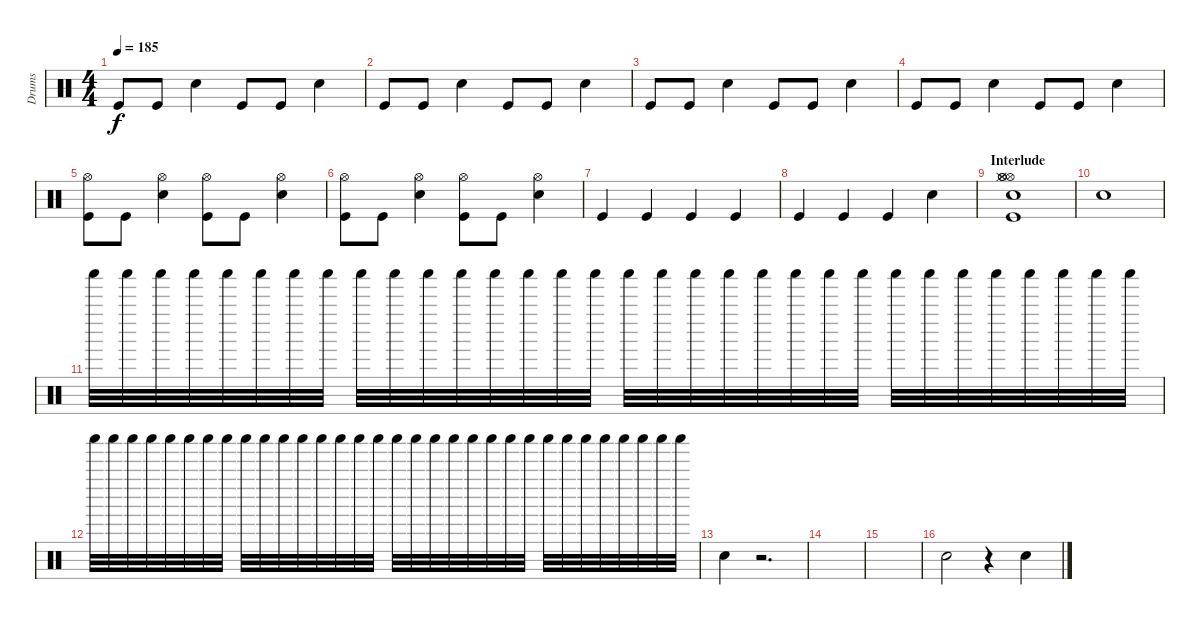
\track ("Drums" "Drums") {instrument percussion}
\staff {score}
\articulation defaults
\ts (4 4)
\tempo 185
\clef neutral
\ks c "Kick (hit)".8{dy f} "Kick (hit)".8 "Electric Snare (hit)".4 "Kick (hit)".8 "Kick (hit)".8 "Electric Snare (hit)".4
|
"Kick (hit)".8 "Kick (hit)".8 "Electric Snare (hit)".4 "Kick (hit)".8 "Kick (hit)".8 "Electric Snare (hit)".4 |
"Kick (hit)".8 "Kick (hit)".8 "Electric Snare (hit)".4 "Kick (hit)".8 "Kick (hit)".8 "Electric Snare (hit)".4 |
"Kick (hit)".8 "Kick (hit)".8 "Electric Snare (hit)".4 "Kick (hit)".8 "Kick (hit)".8 "Electric Snare (hit)".4 |
("Kick (hit)" "Hi-Hat (open)").8 "Kick (hit)".8 ("Electric Snare (hit)" "Hi-Hat (open)").4 ("Kick (hit)" "Hi-Hat (open)").8 "Kick (hit)".8 ("Electric Snare (hit)" "Hi-Hat (open)").4 |
("Kick (hit)" "Hi-Hat (open)").8 "Kick (hit)".8 ("Electric Snare (hit)" "Hi-Hat (open)").4 ("Kick (hit)" "Hi-Hat (open)").8 "Kick (hit)".8 ("Electric Snare (hit)" "Hi-Hat (open)").4 |
"Kick (hit)".4 "Kick (hit)".4 "Kick (hit)".4 "Kick (hit)".4 |
"Kick (hit)".4 "Kick (hit)".4 "Kick (hit)".4 "Electric Snare (hit)".4 |
\section ("" "Interlude")
("Electric Snare (hit)" "Hi-Hat (open)" "Hi-Hat (closed)" "Kick (hit)" "Hi-Hat (open)" "Hi-Hat (open)").1 |
"Snare (hit)".1{volume 0} |
"Shaker (hit)".32{volume 16} "Shaker (hit)".32 "Shaker (hit)".32 "Shaker (hit)".32 "Shaker (hit)".32 "Shaker (hit)".32 "Shaker (hit)".32 "Shaker (hit)".32 "Shaker (hit)".32 "Shaker (hit)".32 "Shaker (hit)".32 "Shaker (hit)".32 "Shaker (hit)".32 "Shaker (hit)".32 "Shaker (hit)".32 "Shaker (hit)".32 "Shaker (hit)".32 "Shaker (hit)".32 "Shaker (hit)".32 "Shaker (hit)".32 "Shaker (hit)".32 "Shaker (hit)".32 "Shaker (hit)".32 "Shaker (hit)".32 "Shaker (hit)".32 "Shaker (hit)".32 "Shaker (hit)".32 "Shaker (hit)".32 "Shaker (hit)".32 "Shaker (hit)".32 "Shaker (hit)".32 "Shaker (hit)".32 |
"Shaker (hit)".32 "Shaker (hit)".32 "Shaker (hit)".32 "Shaker (hit)".32 "Shaker (hit)".32 "Shaker (hit)".32 "Shaker (hit)".32 "Shaker (hit)".32 "Shaker (hit)".32 "Shaker (hit)".32 "Shaker (hit)".32 "Shaker (hit)".32 "Shaker (hit)".32 "Shaker (hit)".32 "Shaker (hit)".32 "Shaker (hit)".32 "Shaker (hit)".32{volume 0} "Shaker (hit)".32 "Shaker (hit)".32 "Shaker (hit)".32 "Shaker (hit)".32 "Shaker (hit)".32 "Shaker (hit)".32 "Shaker (hit)".32 "Shaker (hit)".32 "Shaker (hit)".32 "Shaker (hit)".32 "Shaker (hit)".32 "Shaker (hit)".32 "Shaker (hit)".32 "Shaker (hit)".32 "Shaker (hit)".32 |
"Electric Snare (hit)".4{volume 16} r.2{d} |
|
|
"Electric Snare (hit)".2 r.4 "Electric Snare (hit)".4
